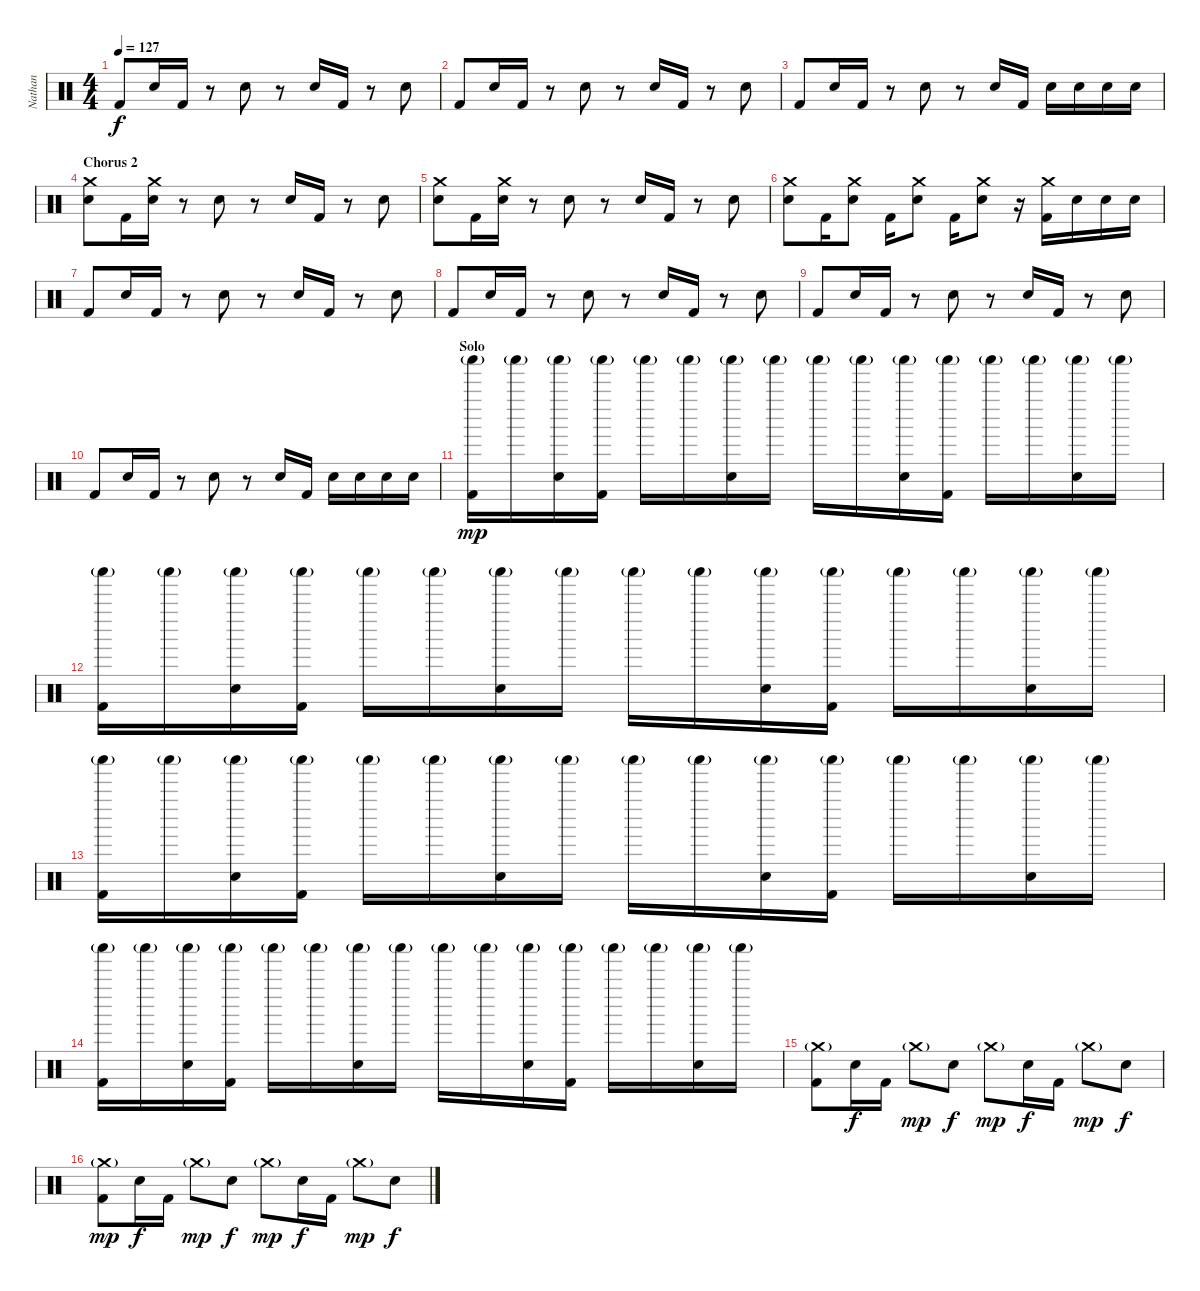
\track ("Nathan" "Nathan") {instrument percussion}
\staff {score}
\articulation defaults
\ts (4 4)
\tempo 127
\clef neutral
\ks c "Kick (hit) 2".8{dy f} "Electric Snare (hit)".16 "Kick (hit) 2".16
r.8 "Electric Snare (hit)".8 r.8 "Electric Snare (hit)".16 "Kick (hit) 2".16 r.8 "Electric Snare (hit)".8 |
"Kick (hit) 2".8 "Electric Snare (hit)".16 "Kick (hit) 2".16 r.8 "Electric Snare (hit)".8 r.8 "Electric Snare (hit)".16 "Kick (hit) 2".16 r.8 "Electric Snare (hit)".8 |
"Kick (hit) 2".8 "Electric Snare (hit)".16 "Kick (hit) 2".16 r.8 "Electric Snare (hit)".8 r.8 "Electric Snare (hit)".16 "Kick (hit) 2".16 "Electric Snare (hit)".16 "Electric Snare (hit)".16 "Electric Snare (hit)".16 "Electric Snare (hit)".16 |
\section ("" "Chorus 2")
("Crash medium (hit)" "Electric Snare (hit)").8 "Kick (hit) 2".16 ("Crash medium (hit)" "Electric Snare (hit)").16 r.8 "Electric Snare (hit)".8 r.8 "Electric Snare (hit)".16 "Kick (hit) 2".16 r.8 "Electric Snare (hit)".8 |
("Crash medium (hit)" "Electric Snare (hit)").8 "Kick (hit) 2".16 ("Crash medium (hit)" "Electric Snare (hit)").16 r.8 "Electric Snare (hit)".8 r.8 "Electric Snare (hit)".16 "Kick (hit) 2".16 r.8 "Electric Snare (hit)".8 |
("Crash medium (hit)" "Electric Snare (hit)").8 "Kick (hit) 2".16 ("Crash medium (hit)" "Electric Snare (hit)").8 "Kick (hit) 2".16 ("Crash medium (hit)" "Electric Snare (hit)").8 "Kick (hit) 2".16 ("Crash medium (hit)" "Electric Snare (hit)").8 r.16 ("Crash medium (hit)" "Kick (hit) 2").16 "Electric Snare (hit)".16 "Electric Snare (hit)".16 "Electric Snare (hit)".16 |
"Kick (hit) 2".8 "Electric Snare (hit)".16 "Kick (hit) 2".16 r.8 "Electric Snare (hit)".8 r.8 "Electric Snare (hit)".16 "Kick (hit) 2".16 r.8 "Electric Snare (hit)".8 |
"Kick (hit) 2".8 "Electric Snare (hit)".16 "Kick (hit) 2".16 r.8 "Electric Snare (hit)".8 r.8 "Electric Snare (hit)".16 "Kick (hit) 2".16 r.8 "Electric Snare (hit)".8 |
"Kick (hit) 2".8 "Electric Snare (hit)".16 "Kick (hit) 2".16 r.8 "Electric Snare (hit)".8 r.8 "Electric Snare (hit)".16 "Kick (hit) 2".16 r.8 "Electric Snare (hit)".8 |
"Kick (hit) 2".8 "Electric Snare (hit)".16 "Kick (hit) 2".16 r.8 "Electric Snare (hit)".8 r.8 "Electric Snare (hit)".16 "Kick (hit) 2".16 "Electric Snare (hit)".16 "Electric Snare (hit)".16 "Electric Snare (hit)".16 "Electric Snare (hit)".16 |
\section ("" "Solo")
("Shaker (hit)"{g} "Kick (hit) 2").16{dy mp} "Shaker (hit)"{g}.16 ("Shaker (hit)"{g} "Electric Snare (hit)").16 ("Shaker (hit)"{g} "Kick (hit) 2").16 "Shaker (hit)"{g}.16 "Shaker (hit)"{g}.16 ("Shaker (hit)"{g} "Electric Snare (hit)").16 "Shaker (hit)"{g}.16 "Shaker (hit)"{g}.16 "Shaker (hit)"{g}.16 ("Shaker (hit)"{g} "Electric Snare (hit)").16 ("Shaker (hit)"{g} "Kick (hit) 2").16 "Shaker (hit)"{g}.16 "Shaker (hit)"{g}.16 ("Shaker (hit)"{g} "Electric Snare (hit)").16 "Shaker (hit)"{g}.16 |
("Shaker (hit)"{g} "Kick (hit) 2").16 "Shaker (hit)"{g}.16 ("Shaker (hit)"{g} "Electric Snare (hit)").16 ("Shaker (hit)"{g} "Kick (hit) 2").16 "Shaker (hit)"{g}.16 "Shaker (hit)"{g}.16 ("Shaker (hit)"{g} "Electric Snare (hit)").16 "Shaker (hit)"{g}.16 "Shaker (hit)"{g}.16 "Shaker (hit)"{g}.16 ("Shaker (hit)"{g} "Electric Snare (hit)").16 ("Shaker (hit)"{g} "Kick (hit) 2").16 "Shaker (hit)"{g}.16 "Shaker (hit)"{g}.16 ("Shaker (hit)"{g} "Electric Snare (hit)").16 "Shaker (hit)"{g}.16 |
("Shaker (hit)"{g} "Kick (hit) 2").16 "Shaker (hit)"{g}.16 ("Shaker (hit)"{g} "Electric Snare (hit)").16 ("Shaker (hit)"{g} "Kick (hit) 2").16 "Shaker (hit)"{g}.16 "Shaker (hit)"{g}.16 ("Shaker (hit)"{g} "Electric Snare (hit)").16 "Shaker (hit)"{g}.16 "Shaker (hit)"{g}.16 "Shaker (hit)"{g}.16 ("Shaker (hit)"{g} "Electric Snare (hit)").16 ("Shaker (hit)"{g} "Kick (hit) 2").16 "Shaker (hit)"{g}.16 "Shaker (hit)"{g}.16 ("Shaker (hit)"{g} "Electric Snare (hit)").16 "Shaker (hit)"{g}.16 |
("Shaker (hit)"{g} "Kick (hit) 2").16 "Shaker (hit)"{g}.16 ("Shaker (hit)"{g} "Electric Snare (hit)").16 ("Shaker (hit)"{g} "Kick (hit) 2").16 "Shaker (hit)"{g}.16 "Shaker (hit)"{g}.16 ("Shaker (hit)"{g} "Electric Snare (hit)").16 "Shaker (hit)"{g}.16 "Shaker (hit)"{g}.16 "Shaker (hit)"{g}.16 ("Shaker (hit)"{g} "Electric Snare (hit)").16 ("Shaker (hit)"{g} "Kick (hit) 2").16 "Shaker (hit)"{g}.16 "Shaker (hit)"{g}.16 ("Shaker (hit)"{g} "Electric Snare (hit)").16 "Shaker (hit)"{g}.16 |
("Crash medium (hit)"{g} "Kick (hit) 2").8 "Electric Snare (hit)".16{dy f} "Kick (hit) 2".16 "Crash medium (hit)"{g}.8{dy mp} "Electric Snare (hit)".8{dy f} "Crash medium (hit)"{g}.8{dy mp} "Electric Snare (hit)".16{dy f} "Kick (hit) 2".16 "Crash medium (hit)"{g}.8{dy mp} "Electric Snare (hit)".8{dy f} |
("Crash medium (hit)"{g} "Kick (hit) 2").8{dy mp} "Electric Snare (hit)".16{dy f} "Kick (hit) 2".16 "Crash medium (hit)"{g}.8{dy mp} "Electric Snare (hit)".8{dy f} "Crash medium (hit)"{g}.8{dy mp} "Electric Snare (hit)".16{dy f} "Kick (hit) 2".16 "Crash medium (hit)"{g}.8{dy mp} "Electric Snare (hit)".8{dy f}
